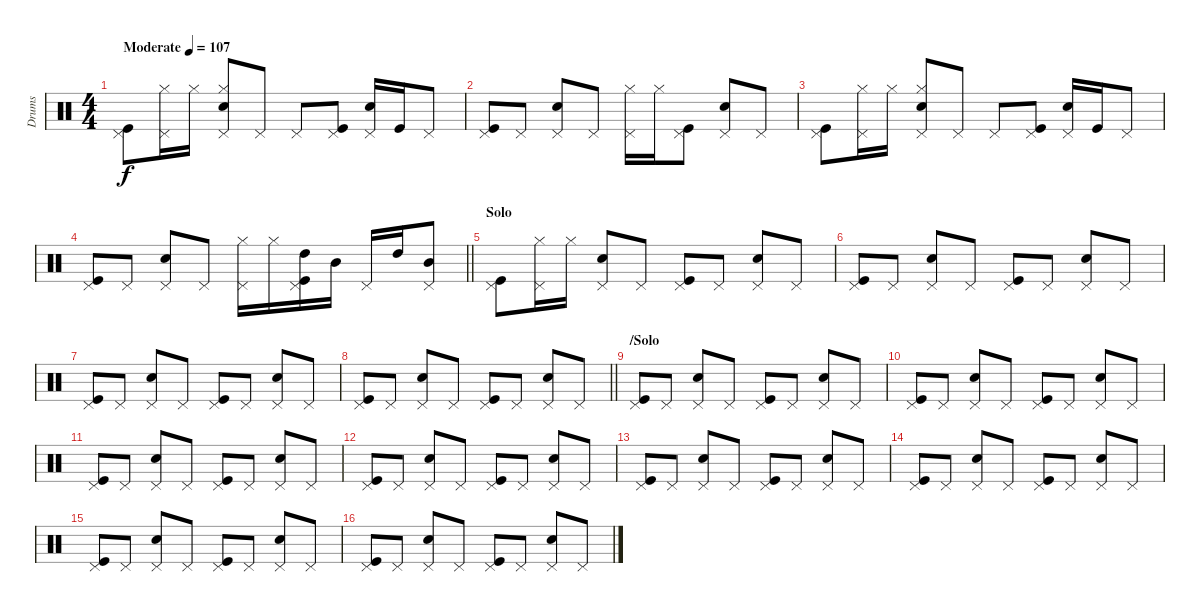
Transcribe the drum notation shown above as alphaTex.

\track ("Drums" "Drums") {instrument percussion}
\staff {score}
\articulation defaults
\ts (4 4)
\tempo (107 "Moderate")
\clef neutral
\ks c
("Kick (hit)" "Pedal Hi-Hat (hit)").8{dy f} ("Pedal Hi-Hat (hit)" "Hi-Hat (closed)").16 "Hi-Hat (closed)".16 ("Snare (hit) 2" "Pedal Hi-Hat (hit)" "Hi-Hat (closed)").8 "Pedal Hi-Hat (hit)".8 "Pedal Hi-Hat (hit)".8 ("Kick (hit)" "Pedal Hi-Hat (hit)").8 ("Snare (hit) 2" "Pedal Hi-Hat (hit)").16 "Kick (hit)".16 "Pedal Hi-Hat (hit)".8 |
("Kick (hit)" "Pedal Hi-Hat (hit)").8 "Pedal Hi-Hat (hit)".8 ("Snare (hit) 2" "Pedal Hi-Hat (hit)").8 "Pedal Hi-Hat (hit)".8 ("Pedal Hi-Hat (hit)" "Hi-Hat (closed)").16 "Hi-Hat (closed)".16 ("Kick (hit)" "Pedal Hi-Hat (hit)").8 ("Snare (hit) 2" "Pedal Hi-Hat (hit)").8 "Pedal Hi-Hat (hit)".8 |
("Kick (hit)" "Pedal Hi-Hat (hit)").8 ("Pedal Hi-Hat (hit)" "Hi-Hat (closed)").16 "Hi-Hat (closed)".16 ("Snare (hit) 2" "Pedal Hi-Hat (hit)" "Hi-Hat (closed)").8 "Pedal Hi-Hat (hit)".8 "Pedal Hi-Hat (hit)".8 ("Kick (hit)" "Pedal Hi-Hat (hit)").8 ("Snare (hit) 2" "Pedal Hi-Hat (hit)").16 "Kick (hit)".16 "Pedal Hi-Hat (hit)".8 |
\barLineRight lightlight
("Kick (hit)" "Pedal Hi-Hat (hit)").8 "Pedal Hi-Hat (hit)".8 ("Snare (hit) 2" "Pedal Hi-Hat (hit)").8 "Pedal Hi-Hat (hit)".8 ("Pedal Hi-Hat (hit)" "Hi-Hat (closed)").16 "Hi-Hat (closed)".16 ("Kick (hit)" "Pedal Hi-Hat (hit)" "High Tom (hit)").16 "Mid Tom (hit)".16 "Pedal Hi-Hat (hit)".16 "High Tom (hit)".16 ("Pedal Hi-Hat (hit)" "Mid Tom (hit)").8 |
\section ("" "Solo")
("Kick (hit)" "Pedal Hi-Hat (hit)").8 ("Pedal Hi-Hat (hit)" "Hi-Hat (closed)").16 "Hi-Hat (closed)".16 ("Snare (hit) 2" "Pedal Hi-Hat (hit)").8 "Pedal Hi-Hat (hit)".8 ("Kick (hit)" "Pedal Hi-Hat (hit)").8 "Pedal Hi-Hat (hit)".8 ("Snare (hit) 2" "Pedal Hi-Hat (hit)").8 "Pedal Hi-Hat (hit)".8 |
("Kick (hit)" "Pedal Hi-Hat (hit)").8 "Pedal Hi-Hat (hit)".8 ("Snare (hit) 2" "Pedal Hi-Hat (hit)").8 "Pedal Hi-Hat (hit)".8 ("Kick (hit)" "Pedal Hi-Hat (hit)").8 "Pedal Hi-Hat (hit)".8 ("Snare (hit) 2" "Pedal Hi-Hat (hit)").8 "Pedal Hi-Hat (hit)".8 |
("Kick (hit)" "Pedal Hi-Hat (hit)").8 "Pedal Hi-Hat (hit)".8 ("Snare (hit) 2" "Pedal Hi-Hat (hit)").8 "Pedal Hi-Hat (hit)".8 ("Kick (hit)" "Pedal Hi-Hat (hit)").8 "Pedal Hi-Hat (hit)".8 ("Snare (hit) 2" "Pedal Hi-Hat (hit)").8 "Pedal Hi-Hat (hit)".8 |
\barLineRight lightlight
("Kick (hit)" "Pedal Hi-Hat (hit)").8 "Pedal Hi-Hat (hit)".8 ("Snare (hit) 2" "Pedal Hi-Hat (hit)").8 "Pedal Hi-Hat (hit)".8 ("Kick (hit)" "Pedal Hi-Hat (hit)").8 "Pedal Hi-Hat (hit)".8 ("Snare (hit) 2" "Pedal Hi-Hat (hit)").8 "Pedal Hi-Hat (hit)".8 |
\section ("" "/Solo")
("Kick (hit)" "Pedal Hi-Hat (hit)").8 "Pedal Hi-Hat (hit)".8 ("Snare (hit) 2" "Pedal Hi-Hat (hit)").8 "Pedal Hi-Hat (hit)".8 ("Kick (hit)" "Pedal Hi-Hat (hit)").8 "Pedal Hi-Hat (hit)".8 ("Snare (hit) 2" "Pedal Hi-Hat (hit)").8 "Pedal Hi-Hat (hit)".8 |
("Kick (hit)" "Pedal Hi-Hat (hit)").8 "Pedal Hi-Hat (hit)".8 ("Snare (hit) 2" "Pedal Hi-Hat (hit)").8 "Pedal Hi-Hat (hit)".8 ("Kick (hit)" "Pedal Hi-Hat (hit)").8 "Pedal Hi-Hat (hit)".8 ("Snare (hit) 2" "Pedal Hi-Hat (hit)").8 "Pedal Hi-Hat (hit)".8 |
("Kick (hit)" "Pedal Hi-Hat (hit)").8 "Pedal Hi-Hat (hit)".8 ("Snare (hit) 2" "Pedal Hi-Hat (hit)").8 "Pedal Hi-Hat (hit)".8 ("Kick (hit)" "Pedal Hi-Hat (hit)").8 "Pedal Hi-Hat (hit)".8 ("Snare (hit) 2" "Pedal Hi-Hat (hit)").8 "Pedal Hi-Hat (hit)".8 |
("Kick (hit)" "Pedal Hi-Hat (hit)").8 "Pedal Hi-Hat (hit)".8 ("Snare (hit) 2" "Pedal Hi-Hat (hit)").8 "Pedal Hi-Hat (hit)".8 ("Kick (hit)" "Pedal Hi-Hat (hit)").8 "Pedal Hi-Hat (hit)".8 ("Snare (hit) 2" "Pedal Hi-Hat (hit)").8 "Pedal Hi-Hat (hit)".8 |
("Kick (hit)" "Pedal Hi-Hat (hit)").8 "Pedal Hi-Hat (hit)".8 ("Snare (hit) 2" "Pedal Hi-Hat (hit)").8 "Pedal Hi-Hat (hit)".8 ("Kick (hit)" "Pedal Hi-Hat (hit)").8 "Pedal Hi-Hat (hit)".8 ("Snare (hit) 2" "Pedal Hi-Hat (hit)").8 "Pedal Hi-Hat (hit)".8 |
("Kick (hit)" "Pedal Hi-Hat (hit)").8 "Pedal Hi-Hat (hit)".8 ("Snare (hit) 2" "Pedal Hi-Hat (hit)").8 "Pedal Hi-Hat (hit)".8 ("Kick (hit)" "Pedal Hi-Hat (hit)").8 "Pedal Hi-Hat (hit)".8 ("Snare (hit) 2" "Pedal Hi-Hat (hit)").8 "Pedal Hi-Hat (hit)".8 |
("Kick (hit)" "Pedal Hi-Hat (hit)").8 "Pedal Hi-Hat (hit)".8 ("Snare (hit) 2" "Pedal Hi-Hat (hit)").8 "Pedal Hi-Hat (hit)".8 ("Kick (hit)" "Pedal Hi-Hat (hit)").8 "Pedal Hi-Hat (hit)".8 ("Snare (hit) 2" "Pedal Hi-Hat (hit)").8 "Pedal Hi-Hat (hit)".8 |
("Kick (hit)" "Pedal Hi-Hat (hit)").8 "Pedal Hi-Hat (hit)".8 ("Snare (hit) 2" "Pedal Hi-Hat (hit)").8 "Pedal Hi-Hat (hit)".8 ("Kick (hit)" "Pedal Hi-Hat (hit)").8 "Pedal Hi-Hat (hit)".8 ("Snare (hit) 2" "Pedal Hi-Hat (hit)").8 "Pedal Hi-Hat (hit)".8
